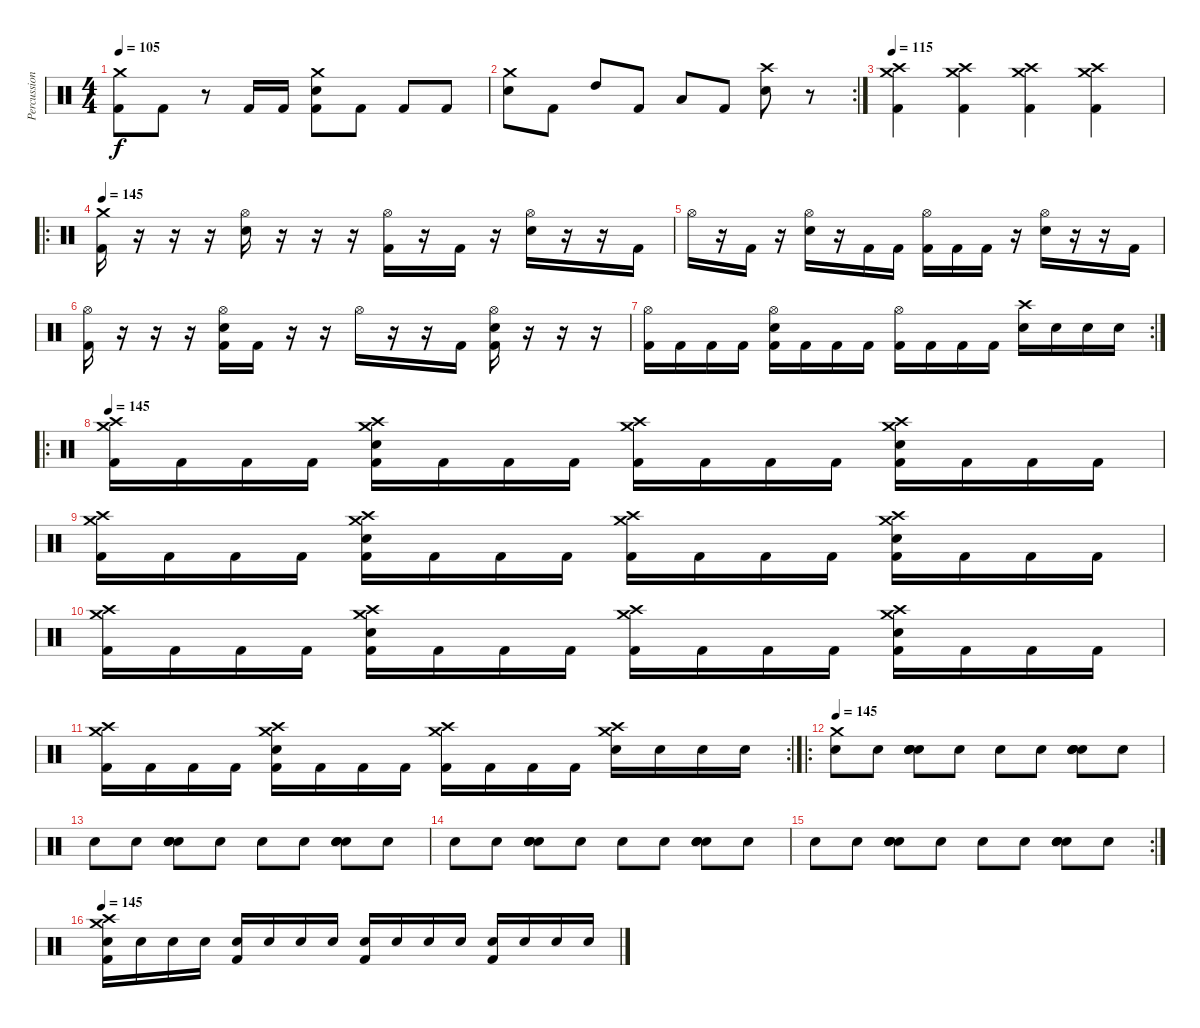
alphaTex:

\track ("Percussion" "Percussion") {instrument percussion}
\staff {score}
\articulation defaults
\ts (4 4)
\tempo 105
\clef neutral
\ks c
("Crash medium (hit)" "Kick (hit) 2").8{dy f} "Kick (hit) 2".8 r.8 "Kick (hit) 2".16 "Kick (hit) 2".16 ("Crash medium (hit)" "Snare (hit) 2" "Kick (hit) 2").8 "Kick (hit) 2".8 "Kick (hit) 2".8 "Kick (hit) 2".8 |
\rc 2
("Crash medium (hit)" "Snare (hit) 2").8 "Kick (hit) 2".8 "High Tom (hit)".8 "Kick (hit) 2".8 "Low Tom (hit)".8 "Kick (hit) 2".8 ("Crash high (hit)" "Snare (hit) 2").8 r.8 |
\tempo 115
("Crash high (hit)" "Crash medium (hit)" "Kick (hit) 2").4 ("Crash high (hit)" "Crash medium (hit)" "Kick (hit) 2").4 ("Crash high (hit)" "Crash medium (hit)" "Kick (hit) 2").4 ("Crash high (hit)" "Crash medium (hit)" "Kick (hit) 2").4 |
\ro
\tempo 145
("Crash medium (hit)" "Kick (hit) 2").16 r.16 r.16 r.16 ("Hi-Hat (open)" "Snare (hit) 2").16 r.16 r.16 r.16 ("Hi-Hat (open)" "Kick (hit) 2").16 r.16 "Kick (hit) 2".16 r.16 ("Hi-Hat (open)" "Snare (hit) 2").16 r.16 r.16 "Kick (hit) 2".16 |
"Hi-Hat (open)".16 r.16 "Kick (hit) 2".16 r.16 ("Hi-Hat (open)" "Snare (hit) 2").16 r.16 "Kick (hit) 2".16 "Kick (hit) 2".16 ("Hi-Hat (open)" "Kick (hit) 2").16 "Kick (hit) 2".16 "Kick (hit) 2".16 r.16 ("Hi-Hat (open)" "Snare (hit) 2").16 r.16 r.16 "Kick (hit) 2".16 |
("Hi-Hat (open)" "Kick (hit) 2").16 r.16 r.16 r.16 ("Hi-Hat (open)" "Snare (hit) 2" "Kick (hit) 2").16 "Kick (hit) 2".16 r.16 r.16 "Hi-Hat (open)".16 r.16 r.16 "Kick (hit) 2".16 ("Hi-Hat (open)" "Snare (hit) 2" "Kick (hit) 2").16 r.16 r.16 r.16 |
\rc 2
("Hi-Hat (open)" "Kick (hit) 2").16 "Kick (hit) 2".16 "Kick (hit) 2".16 "Kick (hit) 2".16 ("Hi-Hat (open)" "Snare (hit) 2" "Kick (hit) 2").16 "Kick (hit) 2".16 "Kick (hit) 2".16 "Kick (hit) 2".16 ("Hi-Hat (open)" "Kick (hit) 2").16 "Kick (hit) 2".16 "Kick (hit) 2".16 "Kick (hit) 2".16 ("Crash high (hit)" "Snare (hit) 2").16 "Snare (hit) 2".16 "Snare (hit) 2".16 "Snare (hit) 2".16 |
\ro
\tempo 145
("Crash high (hit)" "Crash medium (hit)" "Kick (hit) 2").16 "Kick (hit) 2".16 "Kick (hit) 2".16 "Kick (hit) 2".16 ("Crash high (hit)" "Crash medium (hit)" "Snare (hit) 2" "Kick (hit) 2").16 "Kick (hit) 2".16 "Kick (hit) 2".16 "Kick (hit) 2".16 ("Crash high (hit)" "Crash medium (hit)" "Kick (hit) 2").16 "Kick (hit) 2".16 "Kick (hit) 2".16 "Kick (hit) 2".16 ("Crash high (hit)" "Crash medium (hit)" "Snare (hit) 2" "Kick (hit) 2").16 "Kick (hit) 2".16 "Kick (hit) 2".16 "Kick (hit) 2".16 |
("Crash high (hit)" "Crash medium (hit)" "Kick (hit) 2").16 "Kick (hit) 2".16 "Kick (hit) 2".16 "Kick (hit) 2".16 ("Crash high (hit)" "Crash medium (hit)" "Snare (hit) 2" "Kick (hit) 2").16 "Kick (hit) 2".16 "Kick (hit) 2".16 "Kick (hit) 2".16 ("Crash high (hit)" "Crash medium (hit)" "Kick (hit) 2").16 "Kick (hit) 2".16 "Kick (hit) 2".16 "Kick (hit) 2".16 ("Crash high (hit)" "Crash medium (hit)" "Snare (hit) 2" "Kick (hit) 2").16 "Kick (hit) 2".16 "Kick (hit) 2".16 "Kick (hit) 2".16 |
("Crash high (hit)" "Crash medium (hit)" "Kick (hit) 2").16 "Kick (hit) 2".16 "Kick (hit) 2".16 "Kick (hit) 2".16 ("Crash high (hit)" "Crash medium (hit)" "Snare (hit) 2" "Kick (hit) 2").16 "Kick (hit) 2".16 "Kick (hit) 2".16 "Kick (hit) 2".16 ("Crash high (hit)" "Crash medium (hit)" "Kick (hit) 2").16 "Kick (hit) 2".16 "Kick (hit) 2".16 "Kick (hit) 2".16 ("Crash high (hit)" "Crash medium (hit)" "Snare (hit) 2" "Kick (hit) 2").16 "Kick (hit) 2".16 "Kick (hit) 2".16 "Kick (hit) 2".16 |
\rc 2
("Crash high (hit)" "Crash medium (hit)" "Kick (hit) 2").16 "Kick (hit) 2".16 "Kick (hit) 2".16 "Kick (hit) 2".16 ("Crash high (hit)" "Crash medium (hit)" "Snare (hit) 2" "Kick (hit) 2").16 "Kick (hit) 2".16 "Kick (hit) 2".16 "Kick (hit) 2".16 ("Crash high (hit)" "Crash medium (hit)" "Kick (hit) 2").16 "Kick (hit) 2".16 "Kick (hit) 2".16 "Kick (hit) 2".16 ("Crash high (hit)" "Crash medium (hit)" "Snare (hit) 2").16 "Snare (hit) 2".16 "Snare (hit) 2".16 "Snare (hit) 2".16 |
\ro
\tempo 145
("Crash medium (hit)" "Snare (hit) 2").8 "Snare (hit) 2".8 ("Snare (hit) 2" "Snare (hit) 2" "Snare (hit) 2" "Snare (hit) 2").8 "Snare (hit) 2".8 "Snare (hit) 2".8 "Snare (hit) 2".8 ("Snare (hit) 2" "Snare (hit) 2" "Snare (hit) 2" "Snare (hit) 2").8 "Snare (hit) 2".8 |
"Snare (hit) 2".8 "Snare (hit) 2".8 ("Snare (hit) 2" "Snare (hit) 2" "Snare (hit) 2" "Snare (hit) 2").8 "Snare (hit) 2".8 "Snare (hit) 2".8 "Snare (hit) 2".8 ("Snare (hit) 2" "Snare (hit) 2" "Snare (hit) 2" "Snare (hit) 2").8 "Snare (hit) 2".8 |
"Snare (hit) 2".8 "Snare (hit) 2".8 ("Snare (hit) 2" "Snare (hit) 2" "Snare (hit) 2" "Snare (hit) 2").8 "Snare (hit) 2".8 "Snare (hit) 2".8 "Snare (hit) 2".8 ("Snare (hit) 2" "Snare (hit) 2" "Snare (hit) 2" "Snare (hit) 2").8 "Snare (hit) 2".8 |
\rc 2 "Snare (hit) 2".8 "Snare (hit) 2".8
("Snare (hit) 2" "Snare (hit) 2" "Snare (hit) 2" "Snare (hit) 2").8 "Snare (hit) 2".8 "Snare (hit) 2".8 "Snare (hit) 2".8 ("Snare (hit) 2" "Snare (hit) 2" "Snare (hit) 2" "Snare (hit) 2").8 "Snare (hit) 2".8 |
\tempo 145
("Crash high (hit)" "Crash medium (hit)" "Snare (hit) 2" "Kick (hit) 2").16 "Snare (hit) 2".16 "Snare (hit) 2".16 "Snare (hit) 2".16 ("Snare (hit) 2" "Kick (hit) 2").16 "Snare (hit) 2".16 "Snare (hit) 2".16 "Snare (hit) 2".16 ("Snare (hit) 2" "Kick (hit) 2").16 "Snare (hit) 2".16 "Snare (hit) 2".16 "Snare (hit) 2".16 ("Snare (hit) 2" "Kick (hit) 2").16 "Snare (hit) 2".16 "Snare (hit) 2".16 "Snare (hit) 2".16
